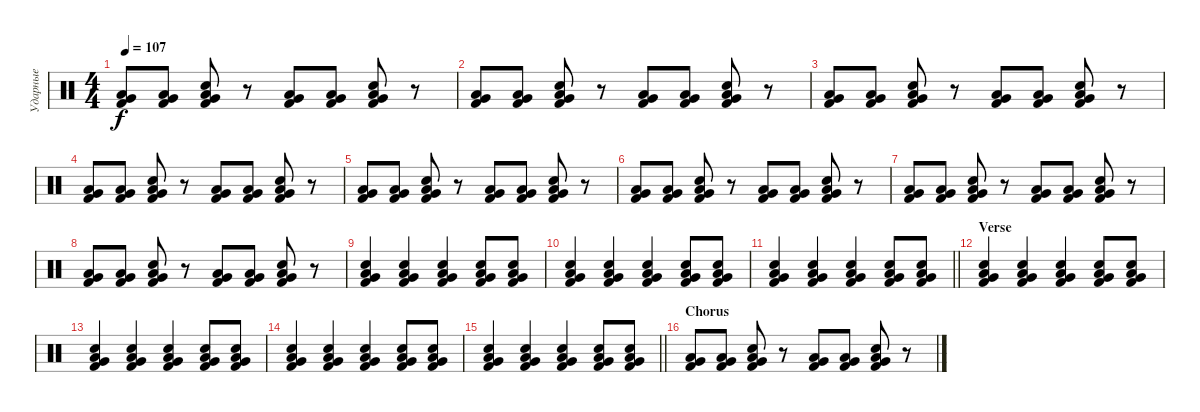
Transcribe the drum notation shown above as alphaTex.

\track ("Ударные" "Ударные") {instrument percussion}
\staff {score}
\articulation defaults
\ts (4 4)
\tempo 107
\clef neutral
\ks c
("Kick (hit) 2" "Low Tom (hit)" "Very Low Tom (hit)").8{dy f} ("Kick (hit) 2" "Low Tom (hit)" "Very Low Tom (hit)").8 ("Snare (hit) 2" "Low Tom (hit)" "Very Low Tom (hit)" "Kick (hit) 2").8 r.8 ("Kick (hit) 2" "Low Tom (hit)" "Very Low Tom (hit)").8 ("Kick (hit) 2" "Low Tom (hit)" "Very Low Tom (hit)").8 ("Snare (hit) 2" "Low Tom (hit)" "Very Low Tom (hit)" "Kick (hit) 2").8 r.8 |
("Kick (hit) 2" "Low Tom (hit)" "Very Low Tom (hit)").8 ("Kick (hit) 2" "Low Tom (hit)" "Very Low Tom (hit)").8 ("Snare (hit) 2" "Low Tom (hit)" "Very Low Tom (hit)" "Kick (hit) 2").8 r.8 ("Kick (hit) 2" "Low Tom (hit)" "Very Low Tom (hit)").8 ("Kick (hit) 2" "Low Tom (hit)" "Very Low Tom (hit)").8 ("Snare (hit) 2" "Low Tom (hit)" "Very Low Tom (hit)" "Kick (hit) 2").8 r.8 |
("Kick (hit) 2" "Low Tom (hit)" "Very Low Tom (hit)").8 ("Kick (hit) 2" "Low Tom (hit)" "Very Low Tom (hit)").8 ("Snare (hit) 2" "Low Tom (hit)" "Very Low Tom (hit)" "Kick (hit) 2").8 r.8 ("Kick (hit) 2" "Low Tom (hit)" "Very Low Tom (hit)").8 ("Kick (hit) 2" "Low Tom (hit)" "Very Low Tom (hit)").8 ("Snare (hit) 2" "Low Tom (hit)" "Very Low Tom (hit)" "Kick (hit) 2").8 r.8 |
("Kick (hit) 2" "Low Tom (hit)" "Very Low Tom (hit)").8 ("Kick (hit) 2" "Low Tom (hit)" "Very Low Tom (hit)").8 ("Snare (hit) 2" "Low Tom (hit)" "Very Low Tom (hit)" "Kick (hit) 2").8 r.8 ("Kick (hit) 2" "Low Tom (hit)" "Very Low Tom (hit)").8 ("Kick (hit) 2" "Low Tom (hit)" "Very Low Tom (hit)").8 ("Snare (hit) 2" "Low Tom (hit)" "Very Low Tom (hit)" "Kick (hit) 2").8 r.8 |
("Kick (hit) 2" "Low Tom (hit)" "Very Low Tom (hit)").8 ("Kick (hit) 2" "Low Tom (hit)" "Very Low Tom (hit)").8 ("Snare (hit) 2" "Low Tom (hit)" "Very Low Tom (hit)" "Kick (hit) 2").8 r.8 ("Kick (hit) 2" "Low Tom (hit)" "Very Low Tom (hit)").8 ("Kick (hit) 2" "Low Tom (hit)" "Very Low Tom (hit)").8 ("Snare (hit) 2" "Low Tom (hit)" "Very Low Tom (hit)" "Kick (hit) 2").8 r.8 |
("Kick (hit) 2" "Low Tom (hit)" "Very Low Tom (hit)").8 ("Kick (hit) 2" "Low Tom (hit)" "Very Low Tom (hit)").8 ("Snare (hit) 2" "Low Tom (hit)" "Very Low Tom (hit)" "Kick (hit) 2").8 r.8 ("Kick (hit) 2" "Low Tom (hit)" "Very Low Tom (hit)").8 ("Kick (hit) 2" "Low Tom (hit)" "Very Low Tom (hit)").8 ("Snare (hit) 2" "Low Tom (hit)" "Very Low Tom (hit)" "Kick (hit) 2").8 r.8 |
("Kick (hit) 2" "Low Tom (hit)" "Very Low Tom (hit)").8 ("Kick (hit) 2" "Low Tom (hit)" "Very Low Tom (hit)").8 ("Snare (hit) 2" "Low Tom (hit)" "Very Low Tom (hit)" "Kick (hit) 2").8 r.8 ("Kick (hit) 2" "Low Tom (hit)" "Very Low Tom (hit)").8 ("Kick (hit) 2" "Low Tom (hit)" "Very Low Tom (hit)").8 ("Snare (hit) 2" "Low Tom (hit)" "Very Low Tom (hit)" "Kick (hit) 2").8 r.8 |
("Kick (hit) 2" "Low Tom (hit)" "Very Low Tom (hit)").8 ("Kick (hit) 2" "Low Tom (hit)" "Very Low Tom (hit)").8 ("Snare (hit) 2" "Low Tom (hit)" "Very Low Tom (hit)" "Kick (hit) 2").8 r.8 ("Kick (hit) 2" "Low Tom (hit)" "Very Low Tom (hit)").8 ("Kick (hit) 2" "Low Tom (hit)" "Very Low Tom (hit)").8 ("Snare (hit) 2" "Low Tom (hit)" "Very Low Tom (hit)" "Kick (hit) 2").8 r.8 |
("Snare (hit) 2" "Low Tom (hit)" "Very Low Tom (hit)" "Kick (hit) 2").4 ("Snare (hit) 2" "Low Tom (hit)" "Very Low Tom (hit)" "Kick (hit) 2").4 ("Snare (hit) 2" "Low Tom (hit)" "Very Low Tom (hit)" "Kick (hit) 2").4 ("Snare (hit) 2" "Low Tom (hit)" "Very Low Tom (hit)" "Kick (hit) 2").8 ("Snare (hit) 2" "Low Tom (hit)" "Very Low Tom (hit)" "Kick (hit) 2").8 |
("Snare (hit) 2" "Low Tom (hit)" "Very Low Tom (hit)" "Kick (hit) 2").4 ("Snare (hit) 2" "Low Tom (hit)" "Very Low Tom (hit)" "Kick (hit) 2").4 ("Snare (hit) 2" "Low Tom (hit)" "Very Low Tom (hit)" "Kick (hit) 2").4 ("Snare (hit) 2" "Low Tom (hit)" "Very Low Tom (hit)" "Kick (hit) 2").8 ("Snare (hit) 2" "Low Tom (hit)" "Very Low Tom (hit)" "Kick (hit) 2").8 |
\barLineRight lightlight
("Snare (hit) 2" "Low Tom (hit)" "Very Low Tom (hit)" "Kick (hit) 2").4 ("Snare (hit) 2" "Low Tom (hit)" "Very Low Tom (hit)" "Kick (hit) 2").4 ("Snare (hit) 2" "Low Tom (hit)" "Very Low Tom (hit)" "Kick (hit) 2").4 ("Snare (hit) 2" "Low Tom (hit)" "Very Low Tom (hit)" "Kick (hit) 2").8 ("Snare (hit) 2" "Low Tom (hit)" "Very Low Tom (hit)" "Kick (hit) 2").8 |
\section ("" "Verse")
("Snare (hit) 2" "Low Tom (hit)" "Very Low Tom (hit)" "Kick (hit) 2").4 ("Snare (hit) 2" "Low Tom (hit)" "Very Low Tom (hit)" "Kick (hit) 2").4 ("Snare (hit) 2" "Low Tom (hit)" "Very Low Tom (hit)" "Kick (hit) 2").4 ("Snare (hit) 2" "Low Tom (hit)" "Very Low Tom (hit)" "Kick (hit) 2").8 ("Snare (hit) 2" "Low Tom (hit)" "Very Low Tom (hit)" "Kick (hit) 2").8 |
("Snare (hit) 2" "Low Tom (hit)" "Very Low Tom (hit)" "Kick (hit) 2").4 ("Snare (hit) 2" "Low Tom (hit)" "Very Low Tom (hit)" "Kick (hit) 2").4 ("Snare (hit) 2" "Low Tom (hit)" "Very Low Tom (hit)" "Kick (hit) 2").4 ("Snare (hit) 2" "Low Tom (hit)" "Very Low Tom (hit)" "Kick (hit) 2").8 ("Snare (hit) 2" "Low Tom (hit)" "Very Low Tom (hit)" "Kick (hit) 2").8 |
("Snare (hit) 2" "Low Tom (hit)" "Very Low Tom (hit)" "Kick (hit) 2").4 ("Snare (hit) 2" "Low Tom (hit)" "Very Low Tom (hit)" "Kick (hit) 2").4 ("Snare (hit) 2" "Low Tom (hit)" "Very Low Tom (hit)" "Kick (hit) 2").4 ("Snare (hit) 2" "Low Tom (hit)" "Very Low Tom (hit)" "Kick (hit) 2").8 ("Snare (hit) 2" "Low Tom (hit)" "Very Low Tom (hit)" "Kick (hit) 2").8 |
\barLineRight lightlight
("Snare (hit) 2" "Low Tom (hit)" "Very Low Tom (hit)" "Kick (hit) 2").4 ("Snare (hit) 2" "Low Tom (hit)" "Very Low Tom (hit)" "Kick (hit) 2").4 ("Snare (hit) 2" "Low Tom (hit)" "Very Low Tom (hit)" "Kick (hit) 2").4 ("Snare (hit) 2" "Low Tom (hit)" "Very Low Tom (hit)" "Kick (hit) 2").8 ("Snare (hit) 2" "Low Tom (hit)" "Very Low Tom (hit)" "Kick (hit) 2").8 |
\section ("" "Chorus")
("Kick (hit) 2" "Low Tom (hit)" "Very Low Tom (hit)").8 ("Kick (hit) 2" "Low Tom (hit)" "Very Low Tom (hit)").8 ("Snare (hit) 2" "Low Tom (hit)" "Very Low Tom (hit)" "Kick (hit) 2").8 r.8 ("Kick (hit) 2" "Low Tom (hit)" "Very Low Tom (hit)").8 ("Kick (hit) 2" "Low Tom (hit)" "Very Low Tom (hit)").8 ("Snare (hit) 2" "Low Tom (hit)" "Very Low Tom (hit)" "Kick (hit) 2").8 r.8
